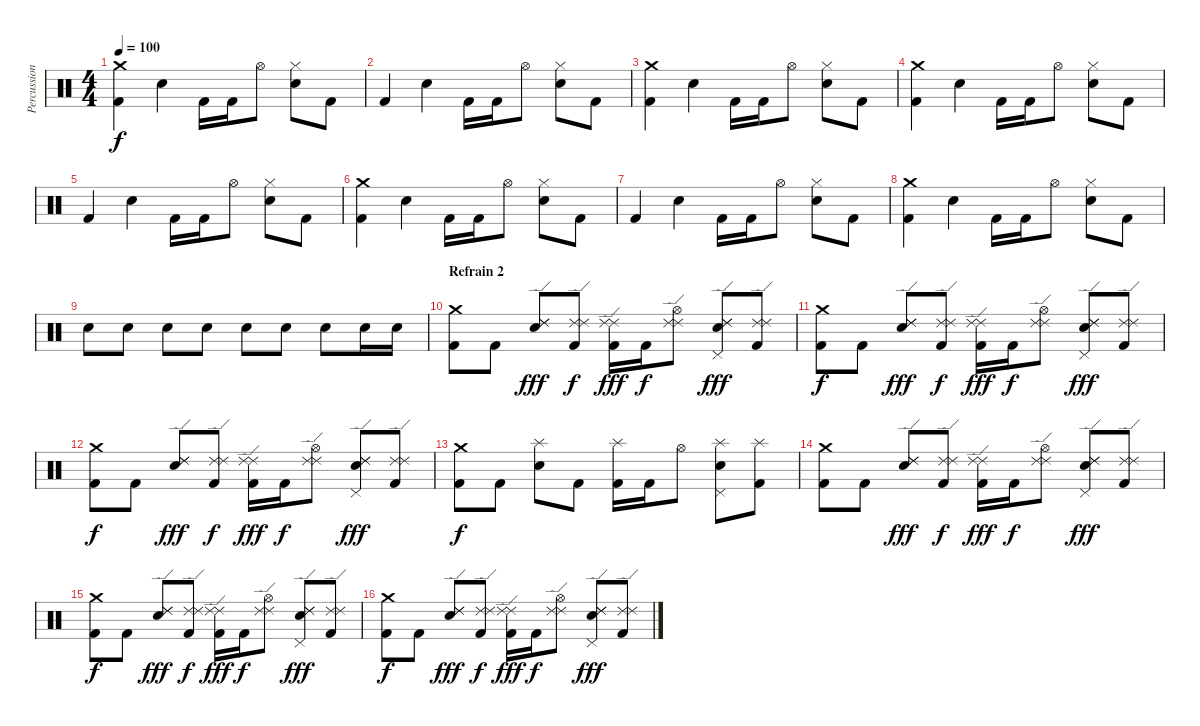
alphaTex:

\track ("Percussions" "Percussion") {instrument percussion}
\staff {score}
\articulation defaults
\ts (4 4)
\tempo 100
\clef neutral
\ks c
("Crash medium (hit)" "Kick (hit) 2").4{dy f} "Snare (hit) 2".4 "Kick (hit) 2".16 "Kick (hit) 2".16 "Hi-Hat (open)".8 ("Hi-Hat (closed)" "Snare (hit) 2").8 "Kick (hit) 2".8 |
"Kick (hit) 2".4 "Snare (hit) 2".4 "Kick (hit) 2".16 "Kick (hit) 2".16 "Hi-Hat (open)".8 ("Hi-Hat (closed)" "Snare (hit) 2").8 "Kick (hit) 2".8 |
("Crash medium (hit)" "Kick (hit) 2").4 "Snare (hit) 2".4 "Kick (hit) 2".16 "Kick (hit) 2".16 "Hi-Hat (open)".8 ("Hi-Hat (closed)" "Snare (hit) 2").8 "Kick (hit) 2".8 |
("Crash medium (hit)" "Kick (hit) 2").4 "Snare (hit) 2".4 "Kick (hit) 2".16 "Kick (hit) 2".16 "Hi-Hat (open)".8 ("Hi-Hat (closed)" "Snare (hit) 2").8 "Kick (hit) 2".8 |
"Kick (hit) 2".4 "Snare (hit) 2".4 "Kick (hit) 2".16 "Kick (hit) 2".16 "Hi-Hat (open)".8 ("Hi-Hat (closed)" "Snare (hit) 2").8 "Kick (hit) 2".8 |
("Crash medium (hit)" "Kick (hit) 2").4 "Snare (hit) 2".4 "Kick (hit) 2".16 "Kick (hit) 2".16 "Hi-Hat (open)".8 ("Hi-Hat (closed)" "Snare (hit) 2").8 "Kick (hit) 2".8 |
"Kick (hit) 2".4 "Snare (hit) 2".4 "Kick (hit) 2".16 "Kick (hit) 2".16 "Hi-Hat (open)".8 ("Hi-Hat (closed)" "Snare (hit) 2").8 "Kick (hit) 2".8 |
("Crash medium (hit)" "Kick (hit) 2").4 "Snare (hit) 2".4 "Kick (hit) 2".16 "Kick (hit) 2".16 "Hi-Hat (open)".8 ("Hi-Hat (closed)" "Snare (hit) 2").8 "Kick (hit) 2".8 |
"Snare (hit) 2".8{volume 8} "Snare (hit) 2".8{volume 13} "Snare (hit) 2".8 "Snare (hit) 2".8 "Snare (hit) 2".8 "Snare (hit) 2".8 "Snare (hit) 2".8 "Snare (hit) 2".16 "Snare (hit) 2".16 |
\section ("" "Refrain 2")
("Crash medium (hit)" "Kick (hit) 2").8 "Kick (hit) 2".8 ("Ride (edge) 2" "Ride (edge) 2" "Snare (hit) 2").8{dy fff} ("Ride (edge) 2" "Ride (edge) 2" "Kick (hit) 2").8{dy f} ("Ride (edge) 2" "Ride (edge) 2" "Kick (hit) 2").16{dy fff} "Kick (hit) 2".16{dy f} ("Ride (edge) 2" "Ride (edge) 2" "Hi-Hat (open)").8 ("Ride (edge) 2" "Ride (edge) 2" "Pedal Hi-Hat (hit)" "Snare (hit) 2").8{dy fff} ("Ride (edge) 2" "Ride (edge) 2" "Kick (hit) 2").8 |
("Crash medium (hit)" "Kick (hit) 2").8{dy f} "Kick (hit) 2".8 ("Ride (edge) 2" "Ride (edge) 2" "Snare (hit) 2").8{dy fff} ("Ride (edge) 2" "Ride (edge) 2" "Kick (hit) 2").8{dy f} ("Ride (edge) 2" "Ride (edge) 2" "Kick (hit) 2").16{dy fff} "Kick (hit) 2".16{dy f} ("Ride (edge) 2" "Ride (edge) 2" "Hi-Hat (open)").8 ("Ride (edge) 2" "Ride (edge) 2" "Pedal Hi-Hat (hit)" "Snare (hit) 2").8{dy fff} ("Ride (edge) 2" "Ride (edge) 2" "Kick (hit) 2").8 |
("Crash medium (hit)" "Kick (hit) 2").8{dy f} "Kick (hit) 2".8 ("Ride (edge) 2" "Ride (edge) 2" "Snare (hit) 2").8{dy fff} ("Ride (edge) 2" "Ride (edge) 2" "Kick (hit) 2").8{dy f} ("Ride (edge) 2" "Ride (edge) 2" "Kick (hit) 2").16{dy fff} "Kick (hit) 2".16{dy f} ("Ride (edge) 2" "Ride (edge) 2" "Hi-Hat (open)").8 ("Ride (edge) 2" "Ride (edge) 2" "Pedal Hi-Hat (hit)" "Snare (hit) 2").8{dy fff} ("Ride (edge) 2" "Ride (edge) 2" "Kick (hit) 2").8 |
("Crash medium (hit)" "Kick (hit) 2").8{dy f} "Kick (hit) 2".8 ("Splash (hit)" "Snare (hit) 2").8 "Kick (hit) 2".8 ("Splash (hit)" "Kick (hit) 2").16 "Kick (hit) 2".16 "Hi-Hat (open)".8 ("Splash (hit)" "Pedal Hi-Hat (hit)" "Snare (hit) 2").8 ("Splash (hit)" "Kick (hit) 2").8 |
("Crash medium (hit)" "Kick (hit) 2").8 "Kick (hit) 2".8 ("Ride (edge) 2" "Ride (edge) 2" "Snare (hit) 2").8{dy fff} ("Ride (edge) 2" "Ride (edge) 2" "Kick (hit) 2").8{dy f} ("Ride (edge) 2" "Ride (edge) 2" "Kick (hit) 2").16{dy fff} "Kick (hit) 2".16{dy f} ("Ride (edge) 2" "Ride (edge) 2" "Hi-Hat (open)").8 ("Ride (edge) 2" "Ride (edge) 2" "Pedal Hi-Hat (hit)" "Snare (hit) 2").8{dy fff} ("Ride (edge) 2" "Ride (edge) 2" "Kick (hit) 2").8 |
("Crash medium (hit)" "Kick (hit) 2").8{dy f} "Kick (hit) 2".8 ("Ride (edge) 2" "Ride (edge) 2" "Snare (hit) 2").8{dy fff} ("Ride (edge) 2" "Ride (edge) 2" "Kick (hit) 2").8{dy f} ("Ride (edge) 2" "Ride (edge) 2" "Kick (hit) 2").16{dy fff} "Kick (hit) 2".16{dy f} ("Ride (edge) 2" "Ride (edge) 2" "Hi-Hat (open)").8 ("Ride (edge) 2" "Ride (edge) 2" "Pedal Hi-Hat (hit)" "Snare (hit) 2").8{dy fff} ("Ride (edge) 2" "Ride (edge) 2" "Kick (hit) 2").8 |
("Crash medium (hit)" "Kick (hit) 2").8{dy f} "Kick (hit) 2".8 ("Ride (edge) 2" "Ride (edge) 2" "Snare (hit) 2").8{dy fff} ("Ride (edge) 2" "Ride (edge) 2" "Kick (hit) 2").8{dy f} ("Ride (edge) 2" "Ride (edge) 2" "Kick (hit) 2").16{dy fff} "Kick (hit) 2".16{dy f} ("Ride (edge) 2" "Ride (edge) 2" "Hi-Hat (open)").8 ("Ride (edge) 2" "Ride (edge) 2" "Pedal Hi-Hat (hit)" "Snare (hit) 2").8{dy fff} ("Ride (edge) 2" "Ride (edge) 2" "Kick (hit) 2").8
